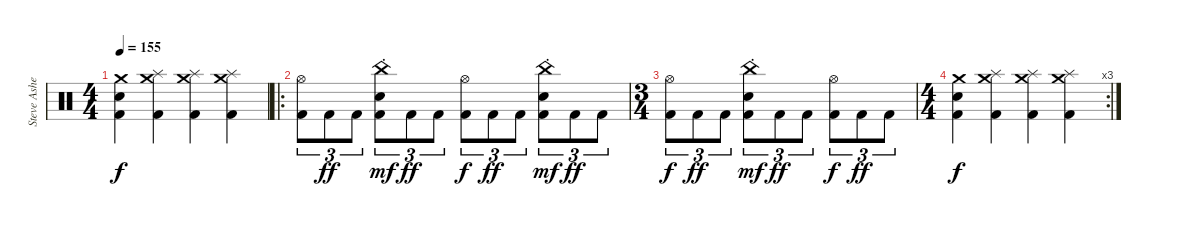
\track ("Steve Asheim " "Steve Ashe") {instrument percussion}
\staff {score}
\articulation defaults
\ts (4 4)
\tempo 155
\clef neutral
\ks c
("Crash medium (hit)" "Electric Snare (hit)" "Kick (hit) 2").4{dy f} ("Crash medium (hit)" "Splash (hit)" "Kick (hit) 2").4 ("Crash medium (hit)" "Splash (hit)" "Kick (hit) 2").4 ("Crash medium (hit)" "Splash (hit)" "Kick (hit) 2").4 |
\ro
("Hi-Hat (open)" "Kick (hit) 2").8{tu (3 2)} "Kick (hit) 2".8{tu (3 2) dy ff} "Kick (hit) 2".8{tu (3 2)} ("Electric Snare (hit)" "China (hit)"{st} "Kick (hit) 2").8{tu (3 2) dy mf} "Kick (hit) 2".8{tu (3 2) dy ff} "Kick (hit) 2".8{tu (3 2)} ("Hi-Hat (open)" "Kick (hit) 2").8{tu (3 2) dy f} "Kick (hit) 2".8{tu (3 2) dy ff} "Kick (hit) 2".8{tu (3 2)} ("Electric Snare (hit)" "China (hit)"{st} "Kick (hit) 2").8{tu (3 2) dy mf} "Kick (hit) 2".8{tu (3 2) dy ff} "Kick (hit) 2".8{tu (3 2)} |
\ts (3 4)
("Hi-Hat (open)" "Kick (hit) 2").8{tu (3 2) dy f} "Kick (hit) 2".8{tu (3 2) dy ff} "Kick (hit) 2".8{tu (3 2)} ("Electric Snare (hit)" "China (hit)"{st} "Kick (hit) 2").8{tu (3 2) dy mf} "Kick (hit) 2".8{tu (3 2) dy ff} "Kick (hit) 2".8{tu (3 2)} ("Hi-Hat (open)" "Kick (hit) 2").8{tu (3 2) dy f} "Kick (hit) 2".8{tu (3 2) dy ff} "Kick (hit) 2".8{tu (3 2)} |
\rc 3
\ts (4 4)
("Crash medium (hit)" "Electric Snare (hit)" "Kick (hit) 2").4{dy f} ("Crash medium (hit)" "Splash (hit)" "Kick (hit) 2").4 ("Crash medium (hit)" "Splash (hit)" "Kick (hit) 2").4 ("Crash medium (hit)" "Splash (hit)" "Kick (hit) 2").4
